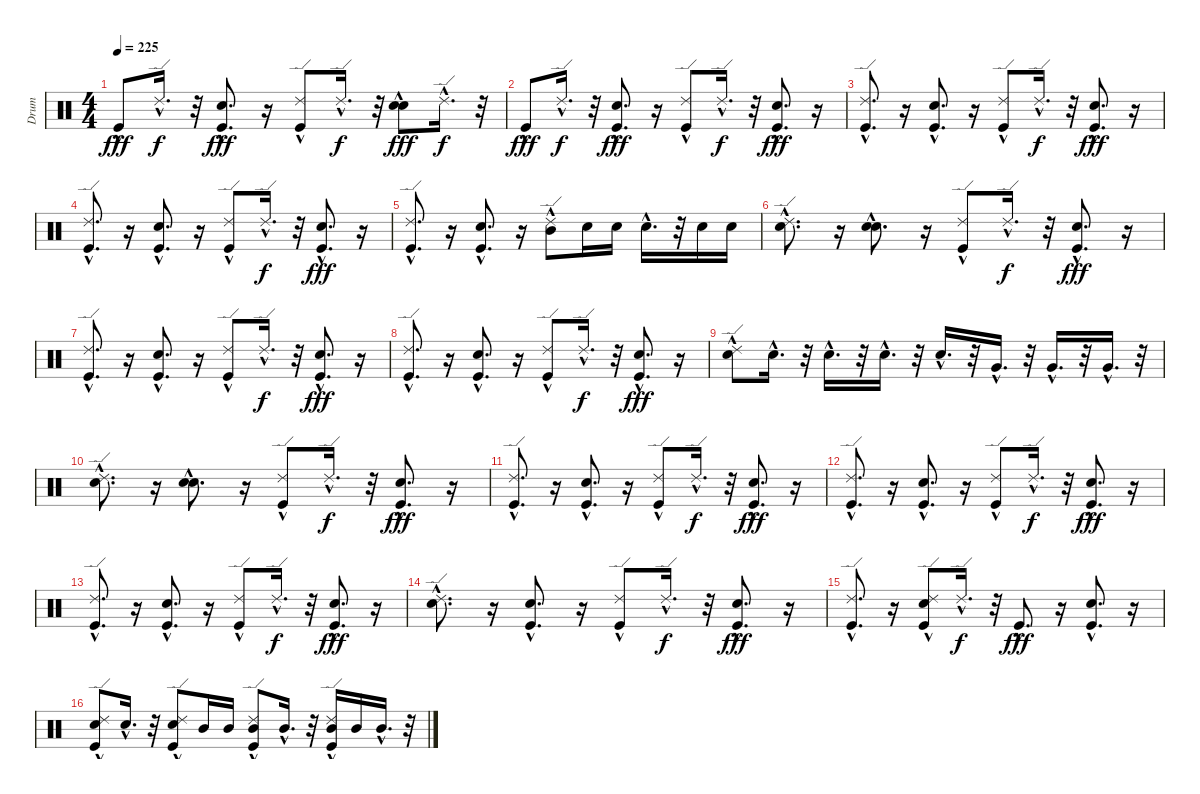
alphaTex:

\track ("Drum" "Drum") {instrument percussion}
\staff {score}
\articulation defaults
\ts (4 4)
\tempo 225
\clef neutral
\ks c "Kick (hit)"{hac}.8{dy fff} "Ride (edge) 2"{hac}.16{d dy f}
r.32 ("Kick (hit)"{hac} "Electric Snare (hit)"{hac}).8{d dy fff} r.16 ("Kick (hit)"{hac} "Ride (edge) 2"{hac}).8 "Ride (edge) 2"{hac}.16{d dy f} r.32 ("Snare (hit) 2"{hac} "Electric Snare (hit)"{hac}).8{dy fff} "Ride (edge) 2"{hac}.16{d dy f} r.32 |
"Kick (hit)"{hac}.8{dy fff} "Ride (edge) 2"{hac}.16{d dy f} r.32 ("Kick (hit)"{hac} "Electric Snare (hit)"{hac}).8{d dy fff} r.16 ("Kick (hit)"{hac} "Ride (edge) 2"{hac}).8 "Ride (edge) 2"{hac}.16{d dy f} r.32 ("Kick (hit)"{hac} "Electric Snare (hit)"{hac}).8{d dy fff} r.16 |
("Kick (hit)"{hac} "Ride (edge) 2"{hac}).8{d} r.16 ("Kick (hit)"{hac} "Electric Snare (hit)"{hac}).8{d} r.16 ("Kick (hit)"{hac} "Ride (edge) 2"{hac}).8 "Ride (edge) 2"{hac}.16{d dy f} r.32 ("Kick (hit)"{hac} "Electric Snare (hit)"{hac}).8{d dy fff} r.16 |
("Kick (hit)"{hac} "Ride (edge) 2"{hac}).8{d} r.16 ("Kick (hit)"{hac} "Electric Snare (hit)"{hac}).8{d} r.16 ("Kick (hit)"{hac} "Ride (edge) 2"{hac}).8 "Ride (edge) 2"{hac}.16{d dy f} r.32 ("Kick (hit)"{hac} "Electric Snare (hit)"{hac}).8{d dy fff} r.16 |
("Kick (hit)"{hac} "Ride (edge) 2"{hac}).8{d} r.16 ("Kick (hit)"{hac} "Electric Snare (hit)"{hac}).8{d} r.16 ("Mid Tom (hit)"{hac} "Ride (edge) 2"{hac}).8 "Electric Snare (hit)".16 "Electric Snare (hit)".16 "Electric Snare (hit)"{hac}.16{d} r.32 "Electric Snare (hit)".16 "Electric Snare (hit)".16 |
("Snare (hit) 2"{hac} "Ride (edge) 2"{hac}).8{d} r.16 ("Snare (hit) 2"{hac} "Electric Snare (hit)"{hac}).8{d} r.16 ("Kick (hit)"{hac} "Ride (edge) 2"{hac}).8 "Ride (edge) 2"{hac}.16{d dy f} r.32 ("Kick (hit)"{hac} "Electric Snare (hit)"{hac}).8{d dy fff} r.16 |
("Kick (hit)"{hac} "Ride (edge) 2"{hac}).8{d} r.16 ("Kick (hit)"{hac} "Electric Snare (hit)"{hac}).8{d} r.16 ("Kick (hit)"{hac} "Ride (edge) 2"{hac}).8 "Ride (edge) 2"{hac}.16{d dy f} r.32 ("Kick (hit)"{hac} "Electric Snare (hit)"{hac}).8{d dy fff} r.16 |
("Kick (hit)"{hac} "Ride (edge) 2"{hac}).8{d} r.16 ("Kick (hit)"{hac} "Electric Snare (hit)"{hac}).8{d} r.16 ("Kick (hit)"{hac} "Ride (edge) 2"{hac}).8 "Ride (edge) 2"{hac}.16{d dy f} r.32 ("Kick (hit)"{hac} "Electric Snare (hit)"{hac}).8{d dy fff} r.16 |
("Snare (hit) 2"{hac} "Ride (edge) 2"{hac}).8 "Electric Snare (hit)"{hac}.16{d} r.32 "Electric Snare (hit)"{hac}.16{d} r.32 "Electric Snare (hit)"{hac}.16{d} r.32 "Electric Snare (hit)"{hac}.16{d} r.32 "Very Low Tom (hit)"{hac}.16{d} r.32 "Very Low Tom (hit)"{hac}.16{d} r.32 "Very Low Tom (hit)"{hac}.16{d} r.32 |
("Snare (hit) 2"{hac} "Ride (edge) 2"{hac}).8{d} r.16 ("Snare (hit) 2"{hac} "Electric Snare (hit)"{hac}).8{d} r.16 ("Kick (hit)"{hac} "Ride (edge) 2"{hac}).8 "Ride (edge) 2"{hac}.16{d dy f} r.32 ("Kick (hit)"{hac} "Electric Snare (hit)"{hac}).8{d dy fff} r.16 |
("Kick (hit)"{hac} "Ride (edge) 2"{hac}).8{d} r.16 ("Kick (hit)"{hac} "Electric Snare (hit)"{hac}).8{d} r.16 ("Kick (hit)"{hac} "Ride (edge) 2"{hac}).8 "Ride (edge) 2"{hac}.16{d dy f} r.32 ("Kick (hit)"{hac} "Electric Snare (hit)"{hac}).8{d dy fff} r.16 |
("Kick (hit)"{hac} "Ride (edge) 2"{hac}).8{d} r.16 ("Kick (hit)"{hac} "Electric Snare (hit)"{hac}).8{d} r.16 ("Kick (hit)"{hac} "Ride (edge) 2"{hac}).8 "Ride (edge) 2"{hac}.16{d dy f} r.32 ("Kick (hit)"{hac} "Electric Snare (hit)"{hac}).8{d dy fff} r.16 |
("Kick (hit)"{hac} "Ride (edge) 2"{hac}).8{d} r.16 ("Kick (hit)"{hac} "Electric Snare (hit)"{hac}).8{d} r.16 ("Kick (hit)"{hac} "Ride (edge) 2"{hac}).8 "Ride (edge) 2"{hac}.16{d dy f} r.32 ("Kick (hit)"{hac} "Electric Snare (hit)"{hac}).8{d dy fff} r.16 |
("Snare (hit) 2"{hac} "Ride (edge) 2"{hac}).8{d} r.16 ("Kick (hit)"{hac} "Electric Snare (hit)"{hac}).8{d} r.16 ("Kick (hit)"{hac} "Ride (edge) 2"{hac}).8 "Ride (edge) 2"{hac}.16{d dy f} r.32 ("Kick (hit)"{hac} "Electric Snare (hit)"{hac}).8{d dy fff} r.16 |
("Kick (hit)"{hac} "Ride (edge) 2"{hac}).8{d} r.16 ("Kick (hit)"{hac} "Electric Snare (hit)"{hac} "Ride (edge) 2"{hac}).8 "Ride (edge) 2"{hac}.16{d dy f} r.32 "Kick (hit)"{hac}.8{d dy fff} r.16 ("Kick (hit)"{hac} "Electric Snare (hit)"{hac}).8{d} r.16 |
("Kick (hit)"{hac} "Electric Snare (hit)"{hac} "Ride (edge) 2"{hac}).8 "Electric Snare (hit)"{hac}.16{d} r.32 ("Kick (hit)"{hac} "Electric Snare (hit)"{hac} "Ride (edge) 2"{hac}).8 "Mid Tom (hit)".16 "Mid Tom (hit)".16 ("Kick (hit)"{hac} "Mid Tom (hit)"{hac} "Ride (edge) 2"{hac}).8 "Mid Tom (hit)"{hac}.16{d} r.32 ("Kick (hit)"{hac} "Mid Tom (hit)" "Ride (edge) 2"{hac}).16 "Mid Tom (hit)".16 "Mid Tom (hit)"{hac}.16{d} r.32
